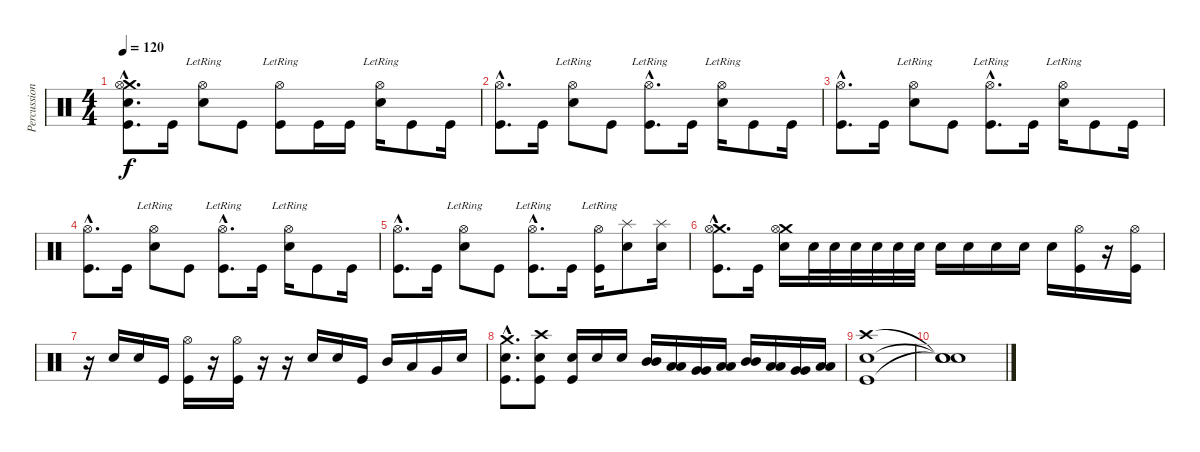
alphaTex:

\track ("Percussions" "Percussion") {instrument percussion}
\staff {score}
\articulation defaults
\ts (4 4)
\tempo 120
\clef neutral
\ks c
("Crash medium (hit)"{hac} "Hi-Hat (open)"{hac} "Snare (hit) 2"{hac} "Kick (hit)"{hac}).8{d dy f} "Kick (hit)".16 ("Hi-Hat (open)"{lr} "Snare (hit) 2").8 "Kick (hit)".8 ("Hi-Hat (open)"{lr} "Kick (hit)").8 "Kick (hit)".16 "Kick (hit)".16 ("Hi-Hat (open)"{lr} "Snare (hit) 2").16 "Kick (hit)".8 "Kick (hit)".16 |
("Hi-Hat (open)"{hac} "Kick (hit)"{hac}).8{d} "Kick (hit)".16 ("Hi-Hat (open)"{lr} "Snare (hit) 2").8 "Kick (hit)".8 ("Hi-Hat (open)"{hac lr} "Kick (hit)"{hac}).8{d} "Kick (hit)".16 ("Hi-Hat (open)"{lr} "Snare (hit) 2").16 "Kick (hit)".8 "Kick (hit)".16 |
("Hi-Hat (open)"{hac} "Kick (hit)"{hac}).8{d} "Kick (hit)".16 ("Hi-Hat (open)"{lr} "Snare (hit) 2").8 "Kick (hit)".8 ("Hi-Hat (open)"{hac lr} "Kick (hit)"{hac}).8{d} "Kick (hit)".16 ("Hi-Hat (open)"{lr} "Snare (hit) 2").16 "Kick (hit)".8 "Kick (hit)".16 |
("Hi-Hat (open)"{hac} "Kick (hit)"{hac}).8{d} "Kick (hit)".16 ("Hi-Hat (open)"{lr} "Snare (hit) 2").8 "Kick (hit)".8 ("Hi-Hat (open)"{hac lr} "Kick (hit)"{hac}).8{d} "Kick (hit)".16 ("Hi-Hat (open)"{lr} "Snare (hit) 2").16 "Kick (hit)".8 "Kick (hit)".16 |
("Hi-Hat (open)"{hac} "Kick (hit)"{hac}).8{d} "Kick (hit)".16 ("Hi-Hat (open)"{lr} "Snare (hit) 2").8 "Kick (hit)".8 ("Hi-Hat (open)"{hac lr} "Kick (hit)"{hac}).8{d} "Kick (hit)".16 ("Hi-Hat (open)"{lr} "Kick (hit)").16 ("Splash (hit)" "Snare (hit) 2").8 ("Splash (hit)" "Snare (hit) 2").16 |
("Crash medium (hit)"{hac} "Hi-Hat (open)"{hac} "Kick (hit)"{hac}).8{d} "Kick (hit)".16 ("Crash medium (hit)" "Hi-Hat (open)" "Snare (hit) 2").16 "Snare (hit) 2".32 "Snare (hit) 2".32 "Snare (hit) 2".32 "Snare (hit) 2".32 "Snare (hit) 2".32 "Snare (hit) 2".32 "Snare (hit) 2".16 "Snare (hit) 2".16 "Snare (hit) 2".16 "Snare (hit) 2".16 "Snare (hit) 2".16 ("Hi-Hat (open)" "Kick (hit)").16 r.16 ("Hi-Hat (open)" "Kick (hit)").16 |
r.16 "Snare (hit) 2".16 "Snare (hit) 2".16 "Kick (hit)".16 ("Hi-Hat (open)" "Kick (hit)").16 r.16 ("Hi-Hat (open)" "Kick (hit)").16 r.16 r.16 "Snare (hit) 2".16 "Snare (hit) 2".16 "Kick (hit)".16 "Mid Tom (hit)".16 "Low Tom (hit)".16 "Very Low Tom (hit)".16 "Snare (hit) 2".16 |
("Crash medium (hit)"{hac} "Snare (hit) 2"{hac} "Kick (hit)"{hac}).8{d} ("Crash high (hit)" "Snare (hit) 2" "Kick (hit)").8 ("Snare (hit) 2" "Kick (hit)").16 "Snare (hit) 2".16 "Snare (hit) 2".16 ("Mid Tom (hit)" "Mid Tom (hit)").16 ("Low Tom (hit)" "Low Tom (hit)").16 ("Very Low Tom (hit)" "Very Low Tom (hit)").16 ("Low Floor Tom (hit)" "Low Floor Tom (hit)").16 ("Mid Tom (hit)" "Mid Tom (hit)").16 ("Low Tom (hit)" "Low Tom (hit)").16 ("Very Low Tom (hit)" "Very Low Tom (hit)").16 ("Low Floor Tom (hit)" "Low Floor Tom (hit)").16 |
("Crash high (hit)" "Snare (hit) 2" "Kick (hit)").1 |
("Snare (hit)"{t} "Snare (hit)"{t} "Snare (hit)"{t}).1
